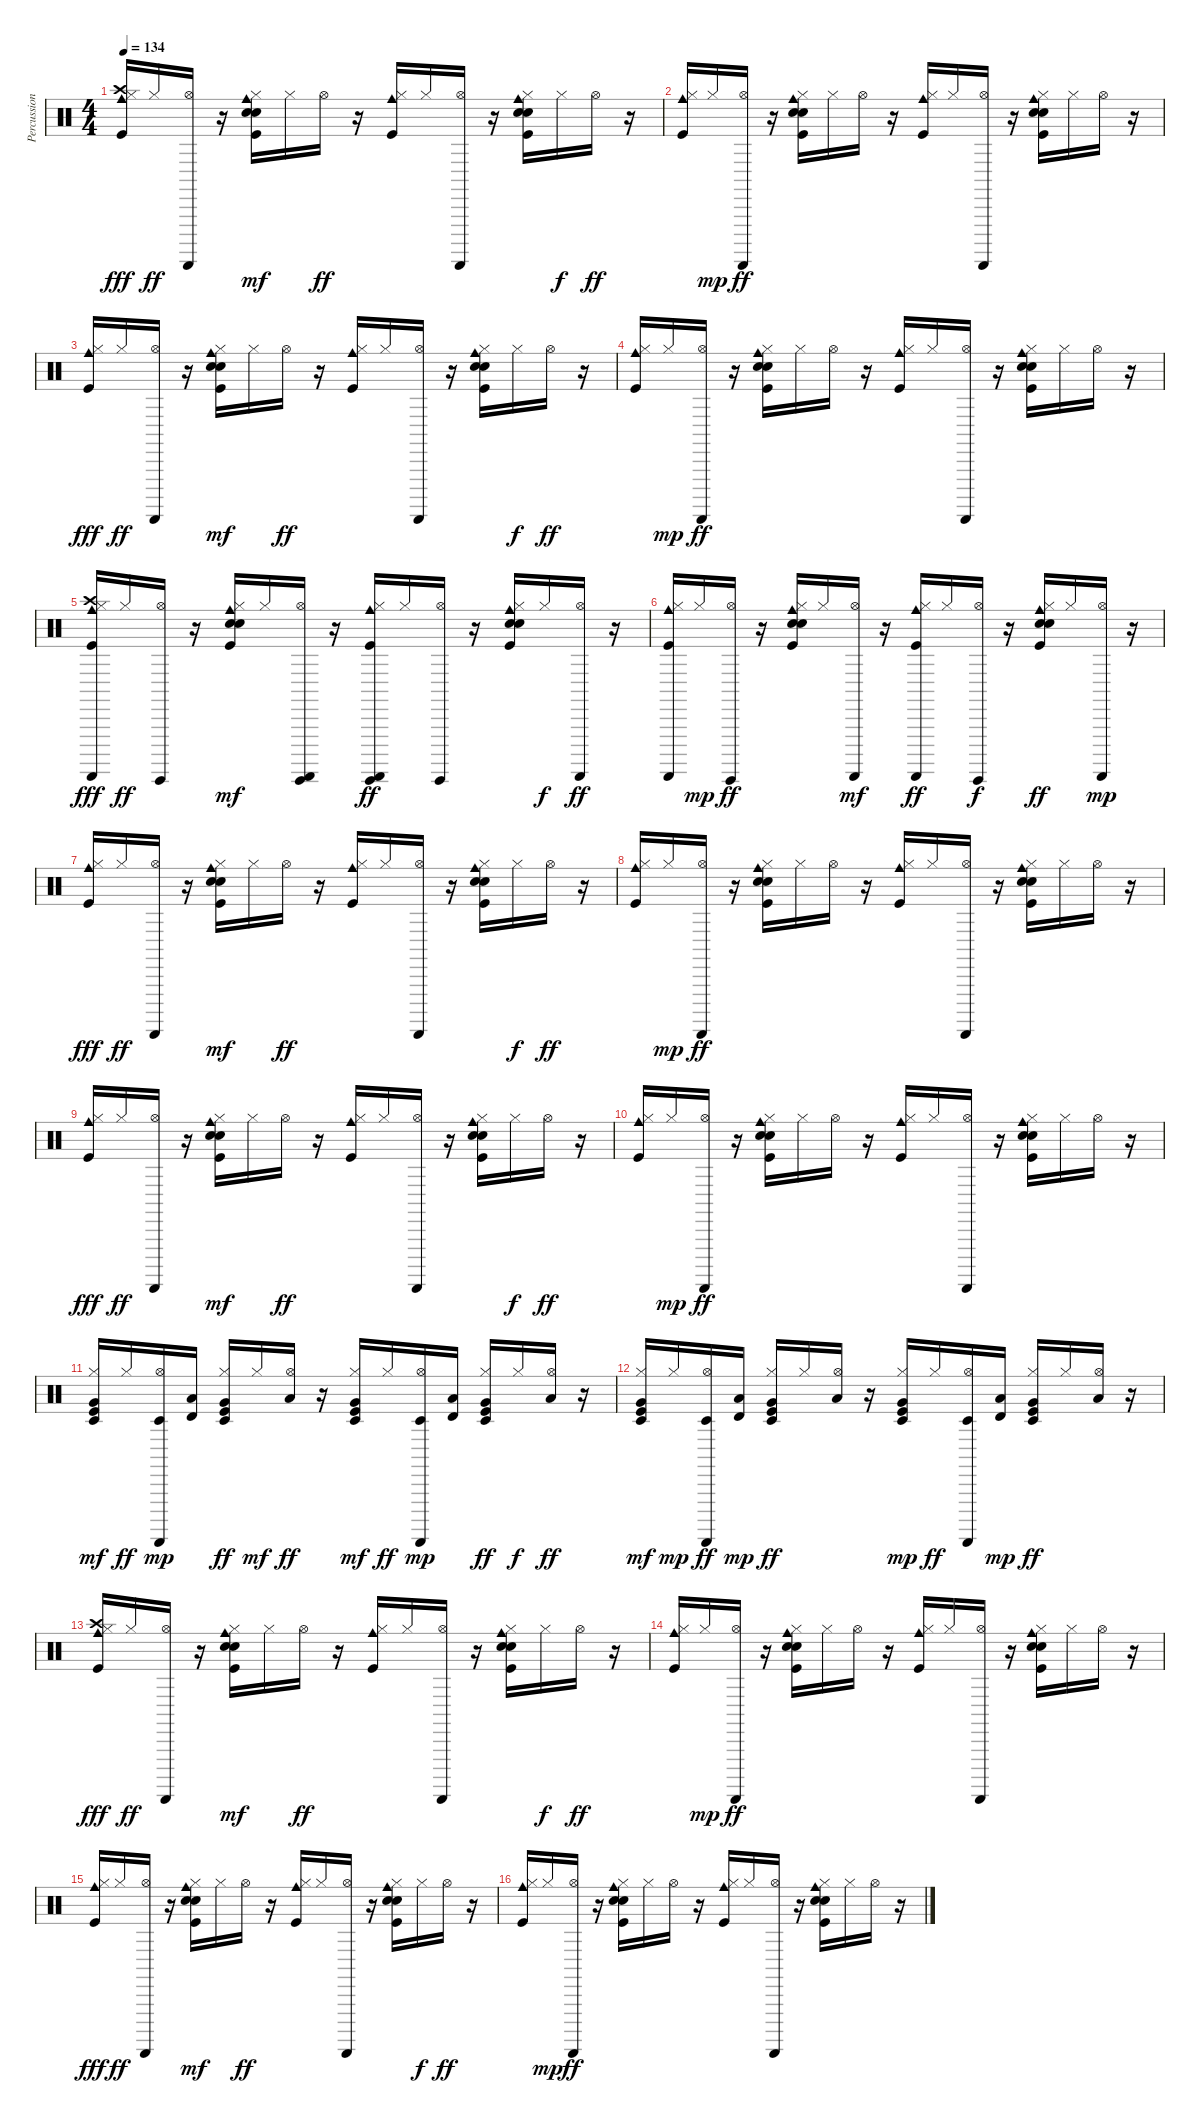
\track ("Percussion" "Percussion") {instrument percussion}
\staff {score}
\articulation defaults
\ts (4 4)
\tempo 134
\clef neutral
\ks c
("Kick (hit)" "Hi-Hat (closed)" "Crash high (hit)" "Cowbell medium (hit)").16{dy fff} "Hi-Hat (closed)".16{dy ff} ("Hi-Hat (open)" "Guiro (scrap-return)").16 r.16 ("Kick (hit)" "Hand Clap (hit)" "Electric Snare (hit)" "Hi-Hat (closed)" "Cowbell medium (hit)").16{dy mf} "Hi-Hat (closed)".16 "Hi-Hat (open)".16{dy ff} r.16 ("Kick (hit)" "Hi-Hat (closed)" "Cowbell medium (hit)").16 "Hi-Hat (closed)".16 ("Hi-Hat (open)" "Guiro (scrap-return)").16 r.16 ("Kick (hit)" "Hand Clap (hit)" "Electric Snare (hit)" "Hi-Hat (closed)" "Cowbell medium (hit)").16 "Hi-Hat (closed)".16{dy f} "Hi-Hat (open)".16{dy ff} r.16 |
("Kick (hit)" "Hi-Hat (closed)" "Cowbell medium (hit)").16 "Hi-Hat (closed)".16{dy mp} ("Hi-Hat (open)" "Guiro (scrap-return)").16{dy ff} r.16 ("Kick (hit)" "Hand Clap (hit)" "Electric Snare (hit)" "Hi-Hat (closed)" "Cowbell medium (hit)").16 "Hi-Hat (closed)".16 "Hi-Hat (open)".16 r.16 ("Kick (hit)" "Hi-Hat (closed)" "Cowbell medium (hit)").16 "Hi-Hat (closed)".16 ("Hi-Hat (open)" "Guiro (scrap-return)").16 r.16 ("Kick (hit)" "Hand Clap (hit)" "Electric Snare (hit)" "Hi-Hat (closed)" "Cowbell medium (hit)").16 "Hi-Hat (closed)".16 "Hi-Hat (open)".16 r.16 |
("Kick (hit)" "Hi-Hat (closed)" "Cowbell medium (hit)").16{dy fff} "Hi-Hat (closed)".16{dy ff} ("Hi-Hat (open)" "Guiro (scrap-return)").16 r.16 ("Kick (hit)" "Hand Clap (hit)" "Electric Snare (hit)" "Hi-Hat (closed)" "Cowbell medium (hit)").16{dy mf} "Hi-Hat (closed)".16 "Hi-Hat (open)".16{dy ff} r.16 ("Kick (hit)" "Hi-Hat (closed)" "Cowbell medium (hit)").16 "Hi-Hat (closed)".16 ("Hi-Hat (open)" "Guiro (scrap-return)").16 r.16 ("Kick (hit)" "Hand Clap (hit)" "Electric Snare (hit)" "Hi-Hat (closed)" "Cowbell medium (hit)").16 "Hi-Hat (closed)".16{dy f} "Hi-Hat (open)".16{dy ff} r.16 |
("Kick (hit)" "Hi-Hat (closed)" "Cowbell medium (hit)").16 "Hi-Hat (closed)".16{dy mp} ("Hi-Hat (open)" "Guiro (scrap-return)").16{dy ff} r.16 ("Kick (hit)" "Hand Clap (hit)" "Electric Snare (hit)" "Hi-Hat (closed)" "Cowbell medium (hit)").16 "Hi-Hat (closed)".16 "Hi-Hat (open)".16 r.16 ("Kick (hit)" "Hi-Hat (closed)" "Cowbell medium (hit)").16 "Hi-Hat (closed)".16 ("Hi-Hat (open)" "Guiro (scrap-return)").16 r.16 ("Kick (hit)" "Hand Clap (hit)" "Electric Snare (hit)" "Hi-Hat (closed)" "Cowbell medium (hit)").16 "Hi-Hat (closed)".16 "Hi-Hat (open)".16 r.16 |
("Kick (hit)" "Hi-Hat (closed)" "Crash high (hit)" "Cowbell medium (hit)" "Guiro (scrap-return)").16{dy fff} "Hi-Hat (closed)".16{dy ff} ("Hi-Hat (open)" "Guiro (hit)").16 r.16 ("Kick (hit)" "Hand Clap (hit)" "Electric Snare (hit)" "Hi-Hat (closed)" "Cowbell medium (hit)").16{dy mf} "Hi-Hat (closed)".16 ("Hi-Hat (open)" "Guiro (hit)" "Guiro (scrap-return)").16 r.16 ("Kick (hit)" "Hi-Hat (closed)" "Cowbell medium (hit)" "Guiro (hit)" "Guiro (scrap-return)").16{dy ff} "Hi-Hat (closed)".16 ("Hi-Hat (open)" "Guiro (hit)").16 r.16 ("Kick (hit)" "Hand Clap (hit)" "Electric Snare (hit)" "Hi-Hat (closed)" "Cowbell medium (hit)").16 "Hi-Hat (closed)".16{dy f} ("Hi-Hat (open)" "Guiro (scrap-return)").16{dy ff} r.16 |
("Kick (hit)" "Hi-Hat (closed)" "Cowbell medium (hit)" "Guiro (scrap-return)").16 "Hi-Hat (closed)".16{dy mp} ("Hi-Hat (open)" "Guiro (hit)").16{dy ff} r.16 ("Kick (hit)" "Hand Clap (hit)" "Electric Snare (hit)" "Hi-Hat (closed)" "Cowbell medium (hit)").16 "Hi-Hat (closed)".16 ("Hi-Hat (open)" "Guiro (scrap-return)").16{dy mf} r.16 ("Kick (hit)" "Hi-Hat (closed)" "Cowbell medium (hit)" "Guiro (scrap-return)").16{dy ff} "Hi-Hat (closed)".16 ("Hi-Hat (open)" "Guiro (hit)").16{dy f} r.16 ("Kick (hit)" "Hand Clap (hit)" "Electric Snare (hit)" "Hi-Hat (closed)" "Cowbell medium (hit)").16{dy ff} "Hi-Hat (closed)".16 ("Hi-Hat (open)" "Guiro (scrap-return)").16{dy mp} r.16 |
("Kick (hit)" "Hi-Hat (closed)" "Cowbell medium (hit)").16{dy fff} "Hi-Hat (closed)".16{dy ff} ("Hi-Hat (open)" "Guiro (scrap-return)").16 r.16 ("Kick (hit)" "Hand Clap (hit)" "Electric Snare (hit)" "Hi-Hat (closed)" "Cowbell medium (hit)").16{dy mf} "Hi-Hat (closed)".16 "Hi-Hat (open)".16{dy ff} r.16 ("Kick (hit)" "Hi-Hat (closed)" "Cowbell medium (hit)").16 "Hi-Hat (closed)".16 ("Hi-Hat (open)" "Guiro (scrap-return)").16 r.16 ("Kick (hit)" "Hand Clap (hit)" "Electric Snare (hit)" "Hi-Hat (closed)" "Cowbell medium (hit)").16 "Hi-Hat (closed)".16{dy f} "Hi-Hat (open)".16{dy ff} r.16 |
("Kick (hit)" "Hi-Hat (closed)" "Cowbell medium (hit)").16 "Hi-Hat (closed)".16{dy mp} ("Hi-Hat (open)" "Guiro (scrap-return)").16{dy ff} r.16 ("Kick (hit)" "Hand Clap (hit)" "Electric Snare (hit)" "Hi-Hat (closed)" "Cowbell medium (hit)").16 "Hi-Hat (closed)".16 "Hi-Hat (open)".16 r.16 ("Kick (hit)" "Hi-Hat (closed)" "Cowbell medium (hit)").16 "Hi-Hat (closed)".16 ("Hi-Hat (open)" "Guiro (scrap-return)").16 r.16 ("Kick (hit)" "Hand Clap (hit)" "Electric Snare (hit)" "Hi-Hat (closed)" "Cowbell medium (hit)").16 "Hi-Hat (closed)".16 "Hi-Hat (open)".16 r.16 |
("Kick (hit)" "Hi-Hat (closed)" "Cowbell medium (hit)").16{dy fff} "Hi-Hat (closed)".16{dy ff} ("Hi-Hat (open)" "Guiro (scrap-return)").16 r.16 ("Kick (hit)" "Hand Clap (hit)" "Electric Snare (hit)" "Hi-Hat (closed)" "Cowbell medium (hit)").16{dy mf} "Hi-Hat (closed)".16 "Hi-Hat (open)".16{dy ff} r.16 ("Kick (hit)" "Hi-Hat (closed)" "Cowbell medium (hit)").16 "Hi-Hat (closed)".16 ("Hi-Hat (open)" "Guiro (scrap-return)").16 r.16 ("Kick (hit)" "Hand Clap (hit)" "Electric Snare (hit)" "Hi-Hat (closed)" "Cowbell medium (hit)").16 "Hi-Hat (closed)".16{dy f} "Hi-Hat (open)".16{dy ff} r.16 |
("Kick (hit)" "Hi-Hat (closed)" "Cowbell medium (hit)").16 "Hi-Hat (closed)".16{dy mp} ("Hi-Hat (open)" "Guiro (scrap-return)").16{dy ff} r.16 ("Kick (hit)" "Hand Clap (hit)" "Electric Snare (hit)" "Hi-Hat (closed)" "Cowbell medium (hit)").16 "Hi-Hat (closed)".16 "Hi-Hat (open)".16 r.16 ("Kick (hit)" "Hi-Hat (closed)" "Cowbell medium (hit)").16 "Hi-Hat (closed)".16 ("Hi-Hat (open)" "Guiro (scrap-return)").16 r.16 ("Kick (hit)" "Hand Clap (hit)" "Electric Snare (hit)" "Hi-Hat (closed)" "Cowbell medium (hit)").16 "Hi-Hat (closed)".16 "Hi-Hat (open)".16 r.16 |
("Kick (hit)" "Hi-Hat (closed)" "Very Low Tom (hit)" "Timbale low (hit)").16{dy mf} "Hi-Hat (closed)".16{dy ff} ("Hi-Hat (open)" "Timbale low (hit)" "Guiro (scrap-return)").16{dy mp} ("Low Tom (hit)" "Timbale high (hit)").16 ("Kick (hit)" "Hi-Hat (closed)" "Very Low Tom (hit)" "Timbale low (hit)").16{dy ff} "Hi-Hat (closed)".16{dy mf} ("Low Tom (hit)" "Hi-Hat (open)").16{dy ff} r.16 ("Kick (hit)" "Hi-Hat (closed)" "Very Low Tom (hit)" "Timbale low (hit)").16{dy mf} "Hi-Hat (closed)".16{dy ff} ("Hi-Hat (open)" "Timbale low (hit)" "Guiro (scrap-return)").16{dy mp} ("Low Tom (hit)" "Timbale high (hit)").16 ("Kick (hit)" "Hi-Hat (closed)" "Very Low Tom (hit)" "Timbale low (hit)").16{dy ff} "Hi-Hat (closed)".16{dy f} ("Low Tom (hit)" "Hi-Hat (open)").16{dy ff} r.16 |
("Kick (hit)" "Hi-Hat (closed)" "Very Low Tom (hit)" "Timbale low (hit)").16{dy mf} "Hi-Hat (closed)".16{dy mp} ("Hi-Hat (open)" "Timbale low (hit)" "Guiro (scrap-return)").16{dy ff} ("Low Tom (hit)" "Timbale high (hit)").16{dy mp} ("Kick (hit)" "Hi-Hat (closed)" "Very Low Tom (hit)" "Timbale low (hit)").16{dy ff} "Hi-Hat (closed)".16 ("Low Tom (hit)" "Hi-Hat (open)").16 r.16 ("Kick (hit)" "Hi-Hat (closed)" "Very Low Tom (hit)" "Timbale low (hit)").16{dy mp} "Hi-Hat (closed)".16{dy ff} ("Hi-Hat (open)" "Timbale low (hit)" "Guiro (scrap-return)").16 ("Low Tom (hit)" "Timbale high (hit)").16{dy mp} ("Kick (hit)" "Hi-Hat (closed)" "Very Low Tom (hit)" "Timbale low (hit)").16{dy ff} "Hi-Hat (closed)".16 ("Low Tom (hit)" "Hi-Hat (open)").16 r.16 |
("Kick (hit)" "Hi-Hat (closed)" "Crash high (hit)" "Cowbell medium (hit)").16{dy fff} "Hi-Hat (closed)".16{dy ff} ("Hi-Hat (open)" "Guiro (scrap-return)").16 r.16 ("Kick (hit)" "Hand Clap (hit)" "Electric Snare (hit)" "Hi-Hat (closed)" "Cowbell medium (hit)").16{dy mf} "Hi-Hat (closed)".16 "Hi-Hat (open)".16{dy ff} r.16 ("Kick (hit)" "Hi-Hat (closed)" "Cowbell medium (hit)").16 "Hi-Hat (closed)".16 ("Hi-Hat (open)" "Guiro (scrap-return)").16 r.16 ("Kick (hit)" "Hand Clap (hit)" "Electric Snare (hit)" "Hi-Hat (closed)" "Cowbell medium (hit)").16 "Hi-Hat (closed)".16{dy f} "Hi-Hat (open)".16{dy ff} r.16 |
("Kick (hit)" "Hi-Hat (closed)" "Cowbell medium (hit)").16 "Hi-Hat (closed)".16{dy mp} ("Hi-Hat (open)" "Guiro (scrap-return)").16{dy ff} r.16 ("Kick (hit)" "Hand Clap (hit)" "Electric Snare (hit)" "Hi-Hat (closed)" "Cowbell medium (hit)").16 "Hi-Hat (closed)".16 "Hi-Hat (open)".16 r.16 ("Kick (hit)" "Hi-Hat (closed)" "Cowbell medium (hit)").16 "Hi-Hat (closed)".16 ("Hi-Hat (open)" "Guiro (scrap-return)").16 r.16 ("Kick (hit)" "Hand Clap (hit)" "Electric Snare (hit)" "Hi-Hat (closed)" "Cowbell medium (hit)").16 "Hi-Hat (closed)".16 "Hi-Hat (open)".16 r.16 |
("Kick (hit)" "Hi-Hat (closed)" "Cowbell medium (hit)").16{dy fff} "Hi-Hat (closed)".16{dy ff} ("Hi-Hat (open)" "Guiro (scrap-return)").16 r.16 ("Kick (hit)" "Hand Clap (hit)" "Electric Snare (hit)" "Hi-Hat (closed)" "Cowbell medium (hit)").16{dy mf} "Hi-Hat (closed)".16 "Hi-Hat (open)".16{dy ff} r.16 ("Kick (hit)" "Hi-Hat (closed)" "Cowbell medium (hit)").16 "Hi-Hat (closed)".16 ("Hi-Hat (open)" "Guiro (scrap-return)").16 r.16 ("Kick (hit)" "Hand Clap (hit)" "Electric Snare (hit)" "Hi-Hat (closed)" "Cowbell medium (hit)").16 "Hi-Hat (closed)".16{dy f} "Hi-Hat (open)".16{dy ff} r.16 |
("Kick (hit)" "Hi-Hat (closed)" "Cowbell medium (hit)").16 "Hi-Hat (closed)".16{dy mp} ("Hi-Hat (open)" "Guiro (scrap-return)").16{dy ff} r.16 ("Kick (hit)" "Hand Clap (hit)" "Electric Snare (hit)" "Hi-Hat (closed)" "Cowbell medium (hit)").16 "Hi-Hat (closed)".16 "Hi-Hat (open)".16 r.16 ("Kick (hit)" "Hi-Hat (closed)" "Cowbell medium (hit)").16 "Hi-Hat (closed)".16 ("Hi-Hat (open)" "Guiro (scrap-return)").16 r.16 ("Kick (hit)" "Hand Clap (hit)" "Electric Snare (hit)" "Hi-Hat (closed)" "Cowbell medium (hit)").16 "Hi-Hat (closed)".16 "Hi-Hat (open)".16 r.16
